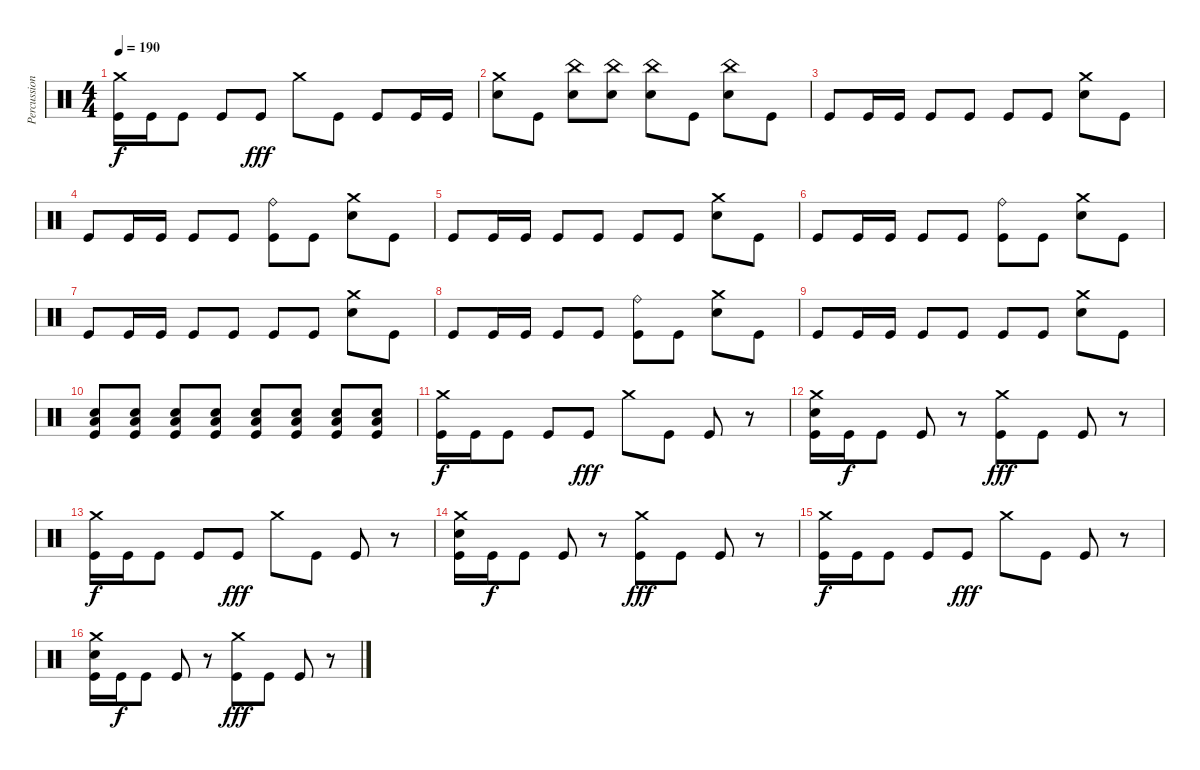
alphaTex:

\track ("Percussion" "Percussion") {instrument percussion}
\staff {score}
\articulation defaults
\ts (4 4)
\tempo 190
\clef neutral
\ks c
("Crash medium (hit)" "Kick (hit)").16{dy f} "Kick (hit)".16 "Kick (hit)".8 "Kick (hit)".8 "Kick (hit)".8{dy fff} "Crash medium (hit)".8 "Kick (hit)".8 "Kick (hit)".8 "Kick (hit)".16 "Kick (hit)".16 |
("Crash medium (hit)" "Electric Snare (hit)").8 "Kick (hit)".8 ("China (hit)" "Electric Snare (hit)").8 ("China (hit)" "Electric Snare (hit)").8 ("China (hit)" "Electric Snare (hit)").8 "Kick (hit)".8 ("China (hit)" "Electric Snare (hit)").8 "Kick (hit)".8 |
"Kick (hit)".8 "Kick (hit)".16 "Kick (hit)".16 "Kick (hit)".8 "Kick (hit)".8 "Kick (hit)".8 "Kick (hit)".8 ("Crash medium (hit)" "Electric Snare (hit)").8 "Kick (hit)".8 |
"Kick (hit)".8 "Kick (hit)".16 "Kick (hit)".16 "Kick (hit)".8 "Kick (hit)".8 ("Ride (bell)" "Kick (hit)").8 "Kick (hit)".8 ("Crash medium (hit)" "Electric Snare (hit)").8 "Kick (hit)".8 |
"Kick (hit)".8 "Kick (hit)".16 "Kick (hit)".16 "Kick (hit)".8 "Kick (hit)".8 "Kick (hit)".8 "Kick (hit)".8 ("Crash medium (hit)" "Electric Snare (hit)").8 "Kick (hit)".8 |
"Kick (hit)".8 "Kick (hit)".16 "Kick (hit)".16 "Kick (hit)".8 "Kick (hit)".8 ("Ride (bell)" "Kick (hit)").8 "Kick (hit)".8 ("Crash medium (hit)" "Electric Snare (hit)").8 "Kick (hit)".8 |
"Kick (hit)".8 "Kick (hit)".16 "Kick (hit)".16 "Kick (hit)".8 "Kick (hit)".8 "Kick (hit)".8 "Kick (hit)".8 ("Crash medium (hit)" "Electric Snare (hit)").8 "Kick (hit)".8 |
"Kick (hit)".8 "Kick (hit)".16 "Kick (hit)".16 "Kick (hit)".8 "Kick (hit)".8 ("Ride (bell)" "Kick (hit)").8 "Kick (hit)".8 ("Crash medium (hit)" "Electric Snare (hit)").8 "Kick (hit)".8 |
"Kick (hit)".8 "Kick (hit)".16 "Kick (hit)".16 "Kick (hit)".8 "Kick (hit)".8 "Kick (hit)".8 "Kick (hit)".8 ("Crash medium (hit)" "Electric Snare (hit)").8 "Kick (hit)".8 |
("Low Floor Tom (hit)" "Electric Snare (hit)" "Kick (hit)").8 ("Low Floor Tom (hit)" "Electric Snare (hit)" "Kick (hit)").8 ("Low Floor Tom (hit)" "Electric Snare (hit)" "Kick (hit)").8 ("Low Floor Tom (hit)" "Electric Snare (hit)" "Kick (hit)").8 ("Low Floor Tom (hit)" "Electric Snare (hit)" "Kick (hit)").8 ("Low Floor Tom (hit)" "Electric Snare (hit)" "Kick (hit)").8 ("Low Floor Tom (hit)" "Electric Snare (hit)" "Kick (hit)").8 ("Low Floor Tom (hit)" "Electric Snare (hit)" "Kick (hit)").8 |
("Crash medium (hit)" "Kick (hit)").16{dy f} "Kick (hit)".16 "Kick (hit)".8 "Kick (hit)".8 "Kick (hit)".8{dy fff} "Crash medium (hit)".8 "Kick (hit)".8 "Kick (hit)".8 r.8 |
("Crash medium (hit)" "Electric Snare (hit)" "Kick (hit)").16 "Kick (hit)".16{dy f} "Kick (hit)".8 "Kick (hit)".8 r.8 ("Crash medium (hit)" "Kick (hit)").8{dy fff} "Kick (hit)".8 "Kick (hit)".8 r.8 |
("Crash medium (hit)" "Kick (hit)").16{dy f} "Kick (hit)".16 "Kick (hit)".8 "Kick (hit)".8 "Kick (hit)".8{dy fff} "Crash medium (hit)".8 "Kick (hit)".8 "Kick (hit)".8 r.8 |
("Crash medium (hit)" "Electric Snare (hit)" "Kick (hit)").16 "Kick (hit)".16{dy f} "Kick (hit)".8 "Kick (hit)".8 r.8 ("Crash medium (hit)" "Kick (hit)").8{dy fff} "Kick (hit)".8 "Kick (hit)".8 r.8 |
("Crash medium (hit)" "Kick (hit)").16{dy f} "Kick (hit)".16 "Kick (hit)".8 "Kick (hit)".8 "Kick (hit)".8{dy fff} "Crash medium (hit)".8 "Kick (hit)".8 "Kick (hit)".8 r.8 |
("Crash medium (hit)" "Electric Snare (hit)" "Kick (hit)").16 "Kick (hit)".16{dy f} "Kick (hit)".8 "Kick (hit)".8 r.8 ("Crash medium (hit)" "Kick (hit)").8{dy fff} "Kick (hit)".8 "Kick (hit)".8 r.8
